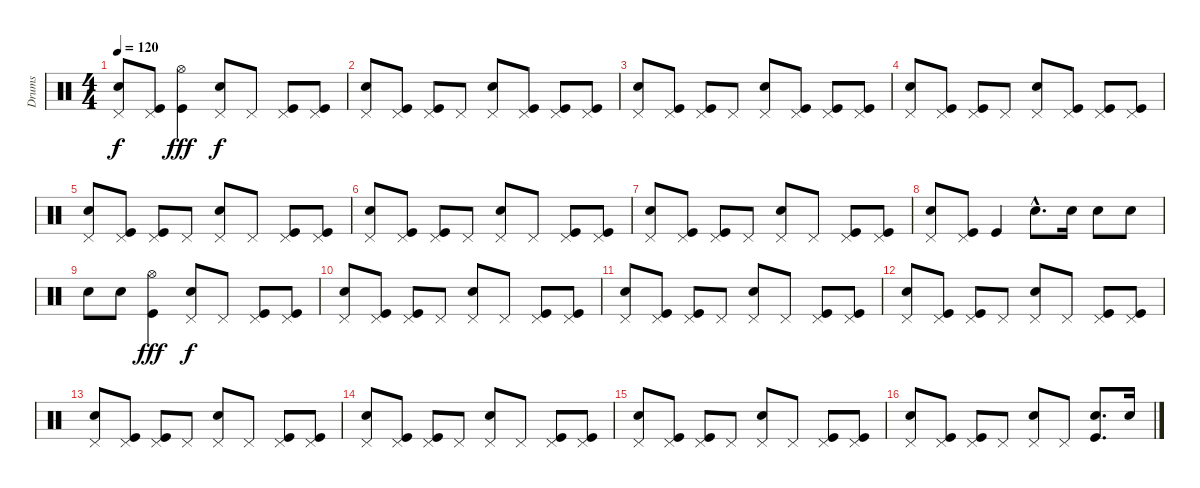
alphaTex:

\track ("Drums" "Drums") {instrument percussion}
\staff {score}
\articulation defaults
\ts (4 4)
\tempo 120
\clef neutral
\ks c
("Snare (hit) 2" "Pedal Hi-Hat (hit)").8{dy f} ("Kick (hit)" "Pedal Hi-Hat (hit)").8 ("Kick (hit)" "Hi-Hat (open)").4{dy fff} ("Snare (hit) 2" "Pedal Hi-Hat (hit)").8{dy f} "Pedal Hi-Hat (hit)".8 ("Kick (hit)" "Pedal Hi-Hat (hit)").8 ("Kick (hit)" "Pedal Hi-Hat (hit)").8 |
("Snare (hit) 2" "Pedal Hi-Hat (hit)").8 ("Kick (hit)" "Pedal Hi-Hat (hit)").8 ("Kick (hit)" "Pedal Hi-Hat (hit)").8 "Pedal Hi-Hat (hit)".8 ("Snare (hit) 2" "Pedal Hi-Hat (hit)").8 ("Kick (hit)" "Pedal Hi-Hat (hit)").8 ("Kick (hit)" "Pedal Hi-Hat (hit)").8 ("Kick (hit)" "Pedal Hi-Hat (hit)").8 |
("Snare (hit) 2" "Pedal Hi-Hat (hit)").8 ("Kick (hit)" "Pedal Hi-Hat (hit)").8 ("Kick (hit)" "Pedal Hi-Hat (hit)").8 "Pedal Hi-Hat (hit)".8 ("Snare (hit) 2" "Pedal Hi-Hat (hit)").8 ("Kick (hit)" "Pedal Hi-Hat (hit)").8 ("Kick (hit)" "Pedal Hi-Hat (hit)").8 ("Kick (hit)" "Pedal Hi-Hat (hit)").8 |
("Snare (hit) 2" "Pedal Hi-Hat (hit)").8 ("Kick (hit)" "Pedal Hi-Hat (hit)").8 ("Kick (hit)" "Pedal Hi-Hat (hit)").8 "Pedal Hi-Hat (hit)".8 ("Snare (hit) 2" "Pedal Hi-Hat (hit)").8 ("Kick (hit)" "Pedal Hi-Hat (hit)").8 ("Kick (hit)" "Pedal Hi-Hat (hit)").8 ("Kick (hit)" "Pedal Hi-Hat (hit)").8 |
("Snare (hit) 2" "Pedal Hi-Hat (hit)").8 ("Kick (hit)" "Pedal Hi-Hat (hit)").8 ("Kick (hit)" "Pedal Hi-Hat (hit)").8 "Pedal Hi-Hat (hit)".8 ("Snare (hit) 2" "Pedal Hi-Hat (hit)").8 "Pedal Hi-Hat (hit)".8 ("Kick (hit)" "Pedal Hi-Hat (hit)").8 ("Kick (hit)" "Pedal Hi-Hat (hit)").8 |
("Snare (hit) 2" "Pedal Hi-Hat (hit)").8 ("Kick (hit)" "Pedal Hi-Hat (hit)").8 ("Kick (hit)" "Pedal Hi-Hat (hit)").8 "Pedal Hi-Hat (hit)".8 ("Snare (hit) 2" "Pedal Hi-Hat (hit)").8 "Pedal Hi-Hat (hit)".8 ("Kick (hit)" "Pedal Hi-Hat (hit)").8 ("Kick (hit)" "Pedal Hi-Hat (hit)").8 |
("Snare (hit) 2" "Pedal Hi-Hat (hit)").8 ("Kick (hit)" "Pedal Hi-Hat (hit)").8 ("Kick (hit)" "Pedal Hi-Hat (hit)").8 "Pedal Hi-Hat (hit)".8 ("Snare (hit) 2" "Pedal Hi-Hat (hit)").8 "Pedal Hi-Hat (hit)".8 ("Kick (hit)" "Pedal Hi-Hat (hit)").8 ("Kick (hit)" "Pedal Hi-Hat (hit)").8 |
("Snare (hit) 2" "Pedal Hi-Hat (hit)").8 ("Kick (hit)" "Pedal Hi-Hat (hit)").8 "Kick (hit)".4 "Snare (hit) 2"{hac}.8{d} "Snare (hit) 2".16 "Snare (hit) 2".8 "Snare (hit) 2".8 |
"Snare (hit) 2".8 "Snare (hit) 2".8 ("Kick (hit)" "Hi-Hat (open)").4{dy fff} ("Snare (hit) 2" "Pedal Hi-Hat (hit)").8{dy f} "Pedal Hi-Hat (hit)".8 ("Kick (hit)" "Pedal Hi-Hat (hit)").8 ("Kick (hit)" "Pedal Hi-Hat (hit)").8 |
("Snare (hit) 2" "Pedal Hi-Hat (hit)").8 ("Kick (hit)" "Pedal Hi-Hat (hit)").8 ("Kick (hit)" "Pedal Hi-Hat (hit)").8 "Pedal Hi-Hat (hit)".8 ("Snare (hit) 2" "Pedal Hi-Hat (hit)").8 "Pedal Hi-Hat (hit)".8 ("Kick (hit)" "Pedal Hi-Hat (hit)").8 ("Kick (hit)" "Pedal Hi-Hat (hit)").8 |
("Snare (hit) 2" "Pedal Hi-Hat (hit)").8 ("Kick (hit)" "Pedal Hi-Hat (hit)").8 ("Kick (hit)" "Pedal Hi-Hat (hit)").8 "Pedal Hi-Hat (hit)".8 ("Snare (hit) 2" "Pedal Hi-Hat (hit)").8 "Pedal Hi-Hat (hit)".8 ("Kick (hit)" "Pedal Hi-Hat (hit)").8 ("Kick (hit)" "Pedal Hi-Hat (hit)").8 |
("Snare (hit) 2" "Pedal Hi-Hat (hit)").8 ("Kick (hit)" "Pedal Hi-Hat (hit)").8 ("Kick (hit)" "Pedal Hi-Hat (hit)").8 "Pedal Hi-Hat (hit)".8 ("Snare (hit) 2" "Pedal Hi-Hat (hit)").8 "Pedal Hi-Hat (hit)".8 ("Kick (hit)" "Pedal Hi-Hat (hit)").8 ("Kick (hit)" "Pedal Hi-Hat (hit)").8 |
("Snare (hit) 2" "Pedal Hi-Hat (hit)").8 ("Kick (hit)" "Pedal Hi-Hat (hit)").8 ("Kick (hit)" "Pedal Hi-Hat (hit)").8 "Pedal Hi-Hat (hit)".8 ("Snare (hit) 2" "Pedal Hi-Hat (hit)").8 "Pedal Hi-Hat (hit)".8 ("Kick (hit)" "Pedal Hi-Hat (hit)").8 ("Kick (hit)" "Pedal Hi-Hat (hit)").8 |
("Snare (hit) 2" "Pedal Hi-Hat (hit)").8 ("Kick (hit)" "Pedal Hi-Hat (hit)").8 ("Kick (hit)" "Pedal Hi-Hat (hit)").8 "Pedal Hi-Hat (hit)".8 ("Snare (hit) 2" "Pedal Hi-Hat (hit)").8 "Pedal Hi-Hat (hit)".8 ("Kick (hit)" "Pedal Hi-Hat (hit)").8 ("Kick (hit)" "Pedal Hi-Hat (hit)").8 |
("Snare (hit) 2" "Pedal Hi-Hat (hit)").8 ("Kick (hit)" "Pedal Hi-Hat (hit)").8 ("Kick (hit)" "Pedal Hi-Hat (hit)").8 "Pedal Hi-Hat (hit)".8 ("Snare (hit) 2" "Pedal Hi-Hat (hit)").8 "Pedal Hi-Hat (hit)".8 ("Kick (hit)" "Pedal Hi-Hat (hit)").8 ("Kick (hit)" "Pedal Hi-Hat (hit)").8 |
("Snare (hit) 2" "Pedal Hi-Hat (hit)").8 ("Kick (hit)" "Pedal Hi-Hat (hit)").8 ("Kick (hit)" "Pedal Hi-Hat (hit)").8 "Pedal Hi-Hat (hit)".8 ("Snare (hit) 2" "Pedal Hi-Hat (hit)").8 "Pedal Hi-Hat (hit)".8 ("Kick (hit)" "Electric Snare (hit)").8{d} "Snare (hit) 2".16
